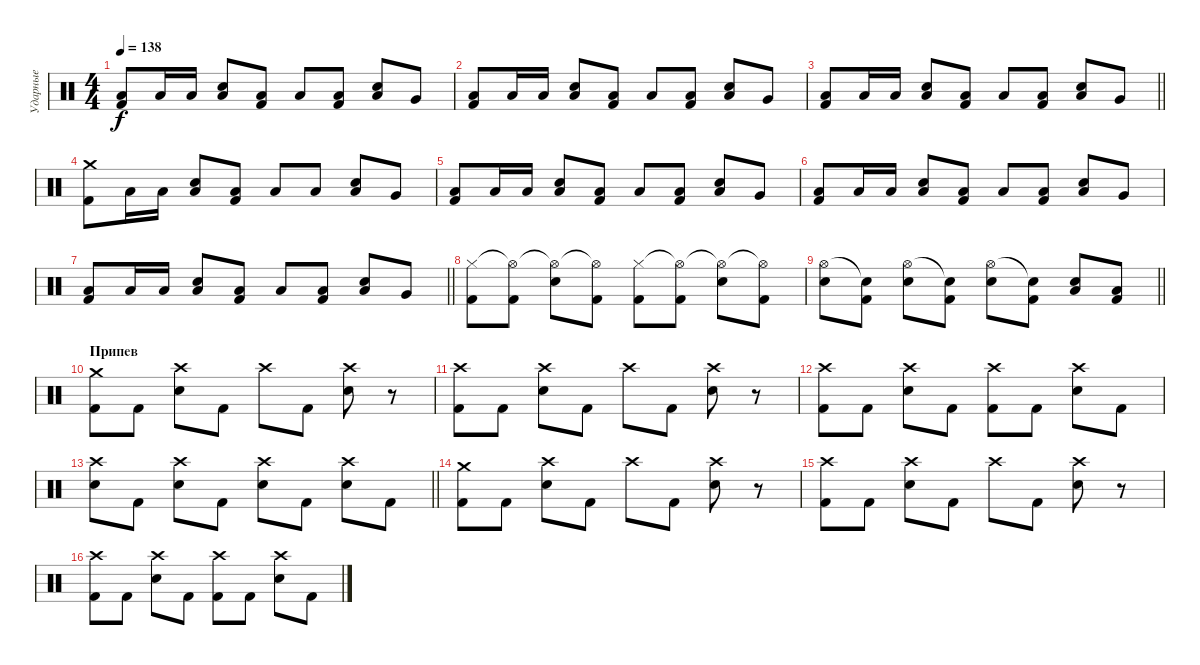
\track ("Ударные" "Ударные") {instrument percussion}
\staff {score}
\articulation defaults
\ts (4 4)
\tempo 138
\clef neutral
\ks c
("Low Tom (hit)" "Kick (hit) 2").8{dy f} "Low Floor Tom (hit)".16 "Low Floor Tom (hit)".16 ("Low Floor Tom (hit)" "Snare (hit) 2").8 ("Low Floor Tom (hit)" "Kick (hit) 2").8 "Low Floor Tom (hit)".8 ("Low Floor Tom (hit)" "Kick (hit) 2").8 ("Low Floor Tom (hit)" "Snare (hit) 2").8 "Very Low Tom (hit)".8 |
("Low Tom (hit)" "Kick (hit) 2").8 "Low Floor Tom (hit)".16 "Low Floor Tom (hit)".16 ("Low Floor Tom (hit)" "Snare (hit) 2").8 ("Low Floor Tom (hit)" "Kick (hit) 2").8 "Low Floor Tom (hit)".8 ("Low Floor Tom (hit)" "Kick (hit) 2").8 ("Low Floor Tom (hit)" "Snare (hit) 2").8 "Very Low Tom (hit)".8 |
\barLineRight lightlight
("Low Tom (hit)" "Kick (hit) 2").8 "Low Floor Tom (hit)".16 "Low Floor Tom (hit)".16 ("Low Floor Tom (hit)" "Snare (hit) 2").8 ("Low Floor Tom (hit)" "Kick (hit) 2").8 "Low Floor Tom (hit)".8 ("Low Floor Tom (hit)" "Kick (hit) 2").8 ("Low Floor Tom (hit)" "Snare (hit) 2").8 "Very Low Tom (hit)".8 |
("Crash medium (hit)" "Kick (hit) 2").8 "Low Floor Tom (hit)".16 "Low Floor Tom (hit)".16 ("Low Floor Tom (hit)" "Snare (hit) 2").8 ("Low Floor Tom (hit)" "Kick (hit) 2").8 "Low Floor Tom (hit)".8 "Low Floor Tom (hit)".8 ("Low Floor Tom (hit)" "Snare (hit) 2").8 "Very Low Tom (hit)".8 |
("Low Tom (hit)" "Kick (hit) 2").8 "Low Floor Tom (hit)".16 "Low Floor Tom (hit)".16 ("Low Floor Tom (hit)" "Snare (hit) 2").8 ("Low Floor Tom (hit)" "Kick (hit) 2").8 "Low Floor Tom (hit)".8 ("Low Floor Tom (hit)" "Kick (hit) 2").8 ("Low Floor Tom (hit)" "Snare (hit) 2").8 "Very Low Tom (hit)".8 |
("Low Tom (hit)" "Kick (hit) 2").8 "Low Floor Tom (hit)".16 "Low Floor Tom (hit)".16 ("Low Floor Tom (hit)" "Snare (hit) 2").8 ("Low Floor Tom (hit)" "Kick (hit) 2").8 "Low Floor Tom (hit)".8 ("Low Floor Tom (hit)" "Kick (hit) 2").8 ("Low Floor Tom (hit)" "Snare (hit) 2").8 "Very Low Tom (hit)".8 |
\barLineRight lightlight
("Low Tom (hit)" "Kick (hit) 2").8 "Low Floor Tom (hit)".16 "Low Floor Tom (hit)".16 ("Low Floor Tom (hit)" "Snare (hit) 2").8 ("Low Floor Tom (hit)" "Kick (hit) 2").8 "Low Floor Tom (hit)".8 ("Low Floor Tom (hit)" "Kick (hit) 2").8 ("Low Floor Tom (hit)" "Snare (hit) 2").8 "Very Low Tom (hit)".8 |
("Hi-Hat (closed)" "Kick (hit) 2").8 ("Hi-Hat (open)"{t} "Kick (hit) 2").8 ("Hi-Hat (open)"{t} "Snare (hit) 2").8 ("Hi-Hat (open)"{t} "Kick (hit) 2").8 ("Hi-Hat (closed)" "Kick (hit) 2").8 ("Hi-Hat (open)"{t} "Kick (hit) 2").8 ("Hi-Hat (open)"{t} "Snare (hit) 2").8 ("Hi-Hat (open)"{t} "Kick (hit) 2").8 |
\barLineRight lightlight
("Hi-Hat (open)" "Snare (hit) 2").8 ("Snare (hit)"{t} "Kick (hit) 2").8 ("Hi-Hat (open)" "Snare (hit) 2").8 ("Snare (hit)"{t} "Kick (hit) 2").8 ("Hi-Hat (open)" "Snare (hit) 2").8 ("Snare (hit)"{t} "Kick (hit) 2").8 ("Low Tom (hit)" "Snare (hit) 2").8 ("Low Floor Tom (hit)" "Kick (hit) 2").8 |
\section ("" "Припев")
("Crash medium (hit)" "Kick (hit) 2").8 "Kick (hit) 2".8 ("Crash high (hit)" "Snare (hit) 2").8 "Kick (hit) 2".8 "Crash high (hit)".8 "Kick (hit) 2".8 ("Crash high (hit)" "Snare (hit) 2").8 r.8 |
("Crash high (hit)" "Kick (hit) 2").8 "Kick (hit) 2".8 ("Crash high (hit)" "Snare (hit) 2").8 "Kick (hit) 2".8 "Crash high (hit)".8 "Kick (hit) 2".8 ("Crash high (hit)" "Snare (hit) 2").8 r.8 |
("Crash high (hit)" "Kick (hit) 2").8 "Kick (hit) 2".8 ("Crash high (hit)" "Snare (hit) 2").8 "Kick (hit) 2".8 ("Crash high (hit)" "Kick (hit) 2").8 "Kick (hit) 2".8 ("Crash high (hit)" "Snare (hit) 2").8 "Kick (hit) 2".8 |
\barLineRight lightlight
("Crash high (hit)" "Snare (hit) 2").8 "Kick (hit) 2".8 ("Crash high (hit)" "Snare (hit) 2").8 "Kick (hit) 2".8 ("Crash high (hit)" "Snare (hit) 2").8 "Kick (hit) 2".8 ("Crash high (hit)" "Snare (hit) 2").8 "Kick (hit) 2".8 |
("Crash medium (hit)" "Kick (hit) 2").8 "Kick (hit) 2".8 ("Crash high (hit)" "Snare (hit) 2").8 "Kick (hit) 2".8 "Crash high (hit)".8 "Kick (hit) 2".8 ("Crash high (hit)" "Snare (hit) 2").8 r.8 |
("Crash high (hit)" "Kick (hit) 2").8 "Kick (hit) 2".8 ("Crash high (hit)" "Snare (hit) 2").8 "Kick (hit) 2".8 "Crash high (hit)".8 "Kick (hit) 2".8 ("Crash high (hit)" "Snare (hit) 2").8 r.8 |
("Crash high (hit)" "Kick (hit) 2").8 "Kick (hit) 2".8 ("Crash high (hit)" "Snare (hit) 2").8 "Kick (hit) 2".8 ("Crash high (hit)" "Kick (hit) 2").8 "Kick (hit) 2".8 ("Crash high (hit)" "Snare (hit) 2").8 "Kick (hit) 2".8
